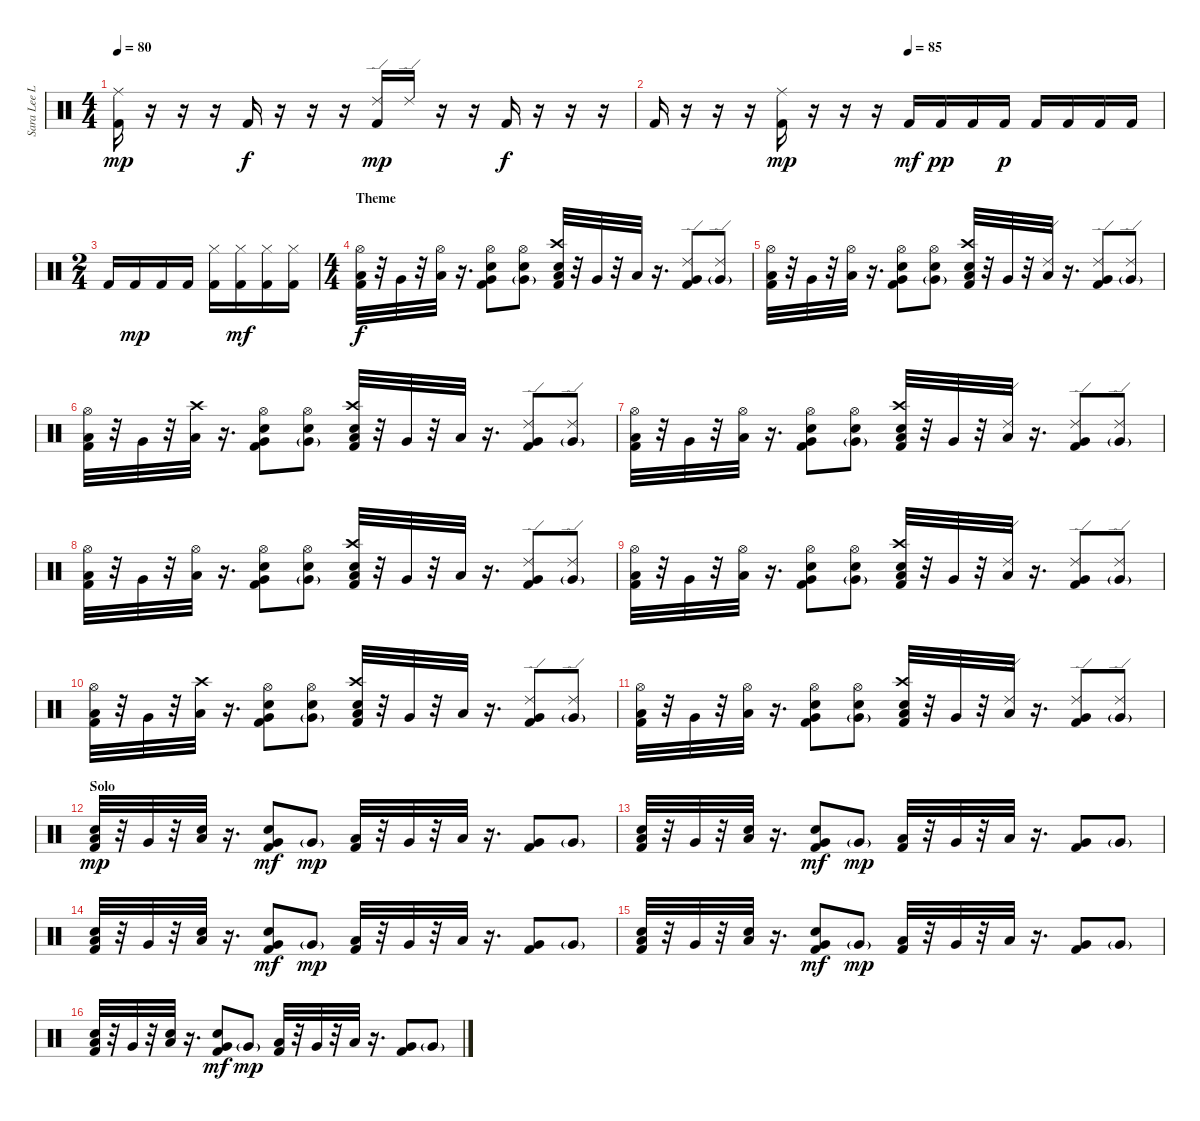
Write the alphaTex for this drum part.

\track ("Sara Lee Lucas [Drums]" "Sara Lee L") {instrument percussion}
\staff {score}
\articulation defaults
\ts (4 4)
\tempo 80
\clef neutral
\ks c
("Ride (middle)" "Kick (hit) 2").16{dy mp} r.16 r.16 r.16 "Kick (hit) 2".16{dy f} r.16 r.16 r.16 ("Ride (edge) 2" "Kick (hit) 2").16{dy mp} "Ride (edge) 2".16 r.16 r.16 "Kick (hit) 2".16{dy f} r.16 r.16 r.16 |
\tempo (85 0.5)
"Kick (hit) 2".16 r.16 r.16 r.16 ("Ride (middle)" "Kick (hit) 2").16{dy mp} r.16 r.16 r.16 "Kick (hit) 2".16{dy mf} "Kick (hit) 2".16{dy pp} "Kick (hit) 2".16 "Kick (hit) 2".16{dy p} "Kick (hit) 2".16 "Kick (hit) 2".16 "Kick (hit) 2".16 "Kick (hit) 2".16 |
\ts (2 4)
"Kick (hit) 2".16 "Kick (hit) 2".16{dy mp} "Kick (hit) 2".16 "Kick (hit) 2".16 ("Hi-Hat (closed)" "Kick (hit) 2").16 ("Hi-Hat (closed)" "Kick (hit) 2").16{dy mf} ("Hi-Hat (closed)" "Kick (hit) 2").16 ("Hi-Hat (closed)" "Kick (hit) 2").16 |
\ts (4 4)
\section ("" "Theme")
("Hi-Hat (open)" "Low Tom (hit)" "Kick (hit) 2").32{dy f} r.32 "Very Low Tom (hit)".32 r.32 ("Hi-Hat (open)" "Low Floor Tom (hit)").32 r.16{d} ("Hi-Hat (open)" "Very Low Tom (hit)" "Snare (hit) 2" "Kick (hit) 2").8 ("Hi-Hat (open)" "Very Low Tom (hit)"{g} "Snare (hit) 2").8 ("Crash high (hit)" "Low Tom (hit)" "Electric Snare (hit)" "Kick (hit) 2").32 r.32 "Very Low Tom (hit)".32 r.32 "Low Floor Tom (hit)".32 r.16{d} ("Ride (edge) 2" "Very Low Tom (hit)" "Kick (hit) 2").8 ("Ride (edge) 2" "Very Low Tom (hit)"{g}).8 |
("Hi-Hat (open)" "Low Tom (hit)" "Kick (hit) 2").32 r.32 "Very Low Tom (hit)".32 r.32 ("Hi-Hat (open)" "Low Floor Tom (hit)").32 r.16{d} ("Hi-Hat (open)" "Very Low Tom (hit)" "Snare (hit) 2" "Kick (hit) 2").8 ("Hi-Hat (open)" "Very Low Tom (hit)"{g} "Snare (hit) 2").8 ("Crash high (hit)" "Low Tom (hit)" "Electric Snare (hit)" "Kick (hit) 2").32 r.32 "Very Low Tom (hit)".32 r.32 ("Ride (edge) 2" "Low Floor Tom (hit)").32 r.16{d} ("Ride (edge) 2" "Very Low Tom (hit)" "Kick (hit) 2").8 ("Ride (edge) 2" "Very Low Tom (hit)"{g}).8 |
("Hi-Hat (open)" "Low Tom (hit)" "Kick (hit) 2").32 r.32 "Very Low Tom (hit)".32 r.32 ("Crash high (hit)" "Low Floor Tom (hit)").32 r.16{d} ("Hi-Hat (open)" "Very Low Tom (hit)" "Snare (hit) 2" "Kick (hit) 2").8 ("Hi-Hat (open)" "Very Low Tom (hit)"{g} "Snare (hit) 2").8 ("Crash high (hit)" "Low Tom (hit)" "Electric Snare (hit)" "Kick (hit) 2").32 r.32 "Very Low Tom (hit)".32 r.32 "Low Floor Tom (hit)".32 r.16{d} ("Ride (edge) 2" "Very Low Tom (hit)" "Kick (hit) 2").8 ("Ride (edge) 2" "Very Low Tom (hit)"{g}).8 |
("Hi-Hat (open)" "Low Tom (hit)" "Kick (hit) 2").32 r.32 "Very Low Tom (hit)".32 r.32 ("Hi-Hat (open)" "Low Floor Tom (hit)").32 r.16{d} ("Hi-Hat (open)" "Very Low Tom (hit)" "Snare (hit) 2" "Kick (hit) 2").8 ("Hi-Hat (open)" "Very Low Tom (hit)"{g} "Snare (hit) 2").8 ("Crash high (hit)" "Low Tom (hit)" "Electric Snare (hit)" "Kick (hit) 2").32 r.32 "Very Low Tom (hit)".32 r.32 ("Ride (edge) 2" "Low Floor Tom (hit)").32 r.16{d} ("Ride (edge) 2" "Very Low Tom (hit)" "Kick (hit) 2").8 ("Ride (edge) 2" "Very Low Tom (hit)"{g}).8 |
("Hi-Hat (open)" "Low Tom (hit)" "Kick (hit) 2").32 r.32 "Very Low Tom (hit)".32 r.32 ("Hi-Hat (open)" "Low Floor Tom (hit)").32 r.16{d} ("Hi-Hat (open)" "Very Low Tom (hit)" "Snare (hit) 2" "Kick (hit) 2").8 ("Hi-Hat (open)" "Very Low Tom (hit)"{g} "Snare (hit) 2").8 ("Crash high (hit)" "Low Tom (hit)" "Electric Snare (hit)" "Kick (hit) 2").32 r.32 "Very Low Tom (hit)".32 r.32 "Low Floor Tom (hit)".32 r.16{d} ("Ride (edge) 2" "Very Low Tom (hit)" "Kick (hit) 2").8 ("Ride (edge) 2" "Very Low Tom (hit)"{g}).8 |
("Hi-Hat (open)" "Low Tom (hit)" "Kick (hit) 2").32 r.32 "Very Low Tom (hit)".32 r.32 ("Hi-Hat (open)" "Low Floor Tom (hit)").32 r.16{d} ("Hi-Hat (open)" "Very Low Tom (hit)" "Snare (hit) 2" "Kick (hit) 2").8 ("Hi-Hat (open)" "Very Low Tom (hit)"{g} "Snare (hit) 2").8 ("Crash high (hit)" "Low Tom (hit)" "Electric Snare (hit)" "Kick (hit) 2").32 r.32 "Very Low Tom (hit)".32 r.32 ("Ride (edge) 2" "Low Floor Tom (hit)").32 r.16{d} ("Ride (edge) 2" "Very Low Tom (hit)" "Kick (hit) 2").8 ("Ride (edge) 2" "Very Low Tom (hit)"{g}).8 |
("Hi-Hat (open)" "Low Tom (hit)" "Kick (hit) 2").32 r.32 "Very Low Tom (hit)".32 r.32 ("Crash high (hit)" "Low Floor Tom (hit)").32 r.16{d} ("Hi-Hat (open)" "Very Low Tom (hit)" "Snare (hit) 2" "Kick (hit) 2").8 ("Hi-Hat (open)" "Very Low Tom (hit)"{g} "Snare (hit) 2").8 ("Crash high (hit)" "Low Tom (hit)" "Electric Snare (hit)" "Kick (hit) 2").32 r.32 "Very Low Tom (hit)".32 r.32 "Low Floor Tom (hit)".32 r.16{d} ("Ride (edge) 2" "Very Low Tom (hit)" "Kick (hit) 2").8 ("Ride (edge) 2" "Very Low Tom (hit)"{g}).8 |
("Hi-Hat (open)" "Low Tom (hit)" "Kick (hit) 2").32 r.32 "Very Low Tom (hit)".32 r.32 ("Hi-Hat (open)" "Low Floor Tom (hit)").32 r.16{d} ("Hi-Hat (open)" "Very Low Tom (hit)" "Snare (hit) 2" "Kick (hit) 2").8 ("Hi-Hat (open)" "Very Low Tom (hit)"{g} "Snare (hit) 2").8 ("Crash high (hit)" "Low Tom (hit)" "Electric Snare (hit)" "Kick (hit) 2").32 r.32 "Very Low Tom (hit)".32 r.32 ("Ride (edge) 2" "Low Floor Tom (hit)").32 r.16{d} ("Ride (edge) 2" "Very Low Tom (hit)" "Kick (hit) 2").8 ("Ride (edge) 2" "Very Low Tom (hit)"{g}).8 |
\section ("" "Solo")
("Low Tom (hit)" "Snare (hit) 2" "Kick (hit) 2").32{dy mp} r.32 "Very Low Tom (hit)".32 r.32 ("Low Floor Tom (hit)" "Snare (hit) 2").32 r.16{d} ("Very Low Tom (hit)" "Electric Snare (hit)" "Kick (hit) 2").8{dy mf} "Very Low Tom (hit)"{g}.8{dy mp} ("Low Tom (hit)" "Kick (hit) 2").32 r.32 "Very Low Tom (hit)".32 r.32 "Low Floor Tom (hit)".32 r.16{d} ("Very Low Tom (hit)" "Kick (hit) 2").8 "Very Low Tom (hit)"{g}.8 |
("Low Tom (hit)" "Snare (hit) 2" "Kick (hit) 2").32 r.32 "Very Low Tom (hit)".32 r.32 ("Low Floor Tom (hit)" "Snare (hit) 2").32 r.16{d} ("Very Low Tom (hit)" "Electric Snare (hit)" "Kick (hit) 2").8{dy mf} "Very Low Tom (hit)"{g}.8{dy mp} ("Low Tom (hit)" "Kick (hit) 2").32 r.32 "Very Low Tom (hit)".32 r.32 "Low Floor Tom (hit)".32 r.16{d} ("Very Low Tom (hit)" "Kick (hit) 2").8 "Very Low Tom (hit)"{g}.8 |
("Low Tom (hit)" "Snare (hit) 2" "Kick (hit) 2").32 r.32 "Very Low Tom (hit)".32 r.32 ("Low Floor Tom (hit)" "Snare (hit) 2").32 r.16{d} ("Very Low Tom (hit)" "Electric Snare (hit)" "Kick (hit) 2").8{dy mf} "Very Low Tom (hit)"{g}.8{dy mp} ("Low Tom (hit)" "Kick (hit) 2").32 r.32 "Very Low Tom (hit)".32 r.32 "Low Floor Tom (hit)".32 r.16{d} ("Very Low Tom (hit)" "Kick (hit) 2").8 "Very Low Tom (hit)"{g}.8 |
("Low Tom (hit)" "Snare (hit) 2" "Kick (hit) 2").32 r.32 "Very Low Tom (hit)".32 r.32 ("Low Floor Tom (hit)" "Snare (hit) 2").32 r.16{d} ("Very Low Tom (hit)" "Electric Snare (hit)" "Kick (hit) 2").8{dy mf} "Very Low Tom (hit)"{g}.8{dy mp} ("Low Tom (hit)" "Kick (hit) 2").32 r.32 "Very Low Tom (hit)".32 r.32 "Low Floor Tom (hit)".32 r.16{d} ("Very Low Tom (hit)" "Kick (hit) 2").8 "Very Low Tom (hit)"{g}.8 |
("Low Tom (hit)" "Snare (hit) 2" "Kick (hit) 2").32 r.32 "Very Low Tom (hit)".32 r.32 ("Low Floor Tom (hit)" "Snare (hit) 2").32 r.16{d} ("Very Low Tom (hit)" "Electric Snare (hit)" "Kick (hit) 2").8{dy mf} "Very Low Tom (hit)"{g}.8{dy mp} ("Low Tom (hit)" "Kick (hit) 2").32 r.32 "Very Low Tom (hit)".32 r.32 "Low Floor Tom (hit)".32 r.16{d} ("Very Low Tom (hit)" "Kick (hit) 2").8 "Very Low Tom (hit)"{g}.8
